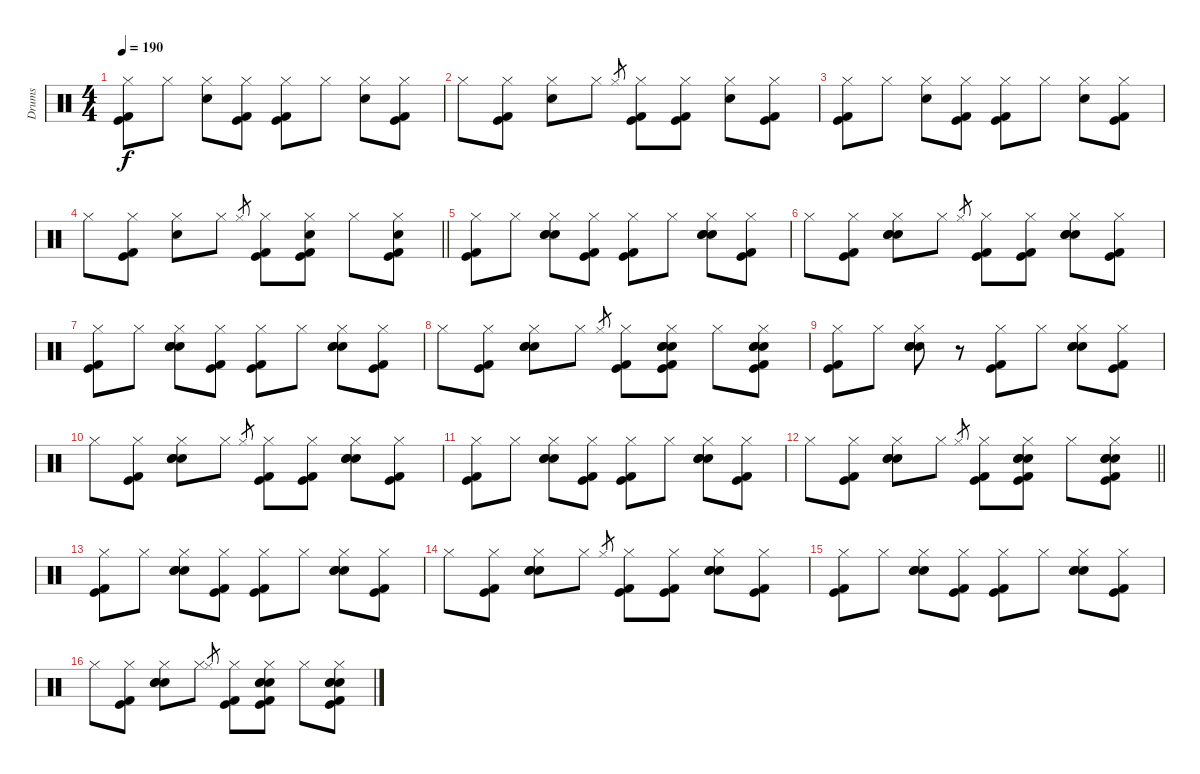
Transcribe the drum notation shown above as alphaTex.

\track ("Drums" "Drums") {instrument percussion}
\staff {score}
\articulation defaults
\ts (4 4)
\tempo 190
\clef neutral
\ks c
("Hi-Hat (closed)" "Kick (hit)" "Kick (hit) 2").8{dy f} "Hi-Hat (closed)".8 ("Hi-Hat (closed)" "Snare (hit) 2").8 ("Hi-Hat (closed)" "Kick (hit)" "Kick (hit) 2").8 ("Hi-Hat (closed)" "Kick (hit)" "Kick (hit) 2").8 "Hi-Hat (closed)".8 ("Hi-Hat (closed)" "Snare (hit) 2").8 ("Hi-Hat (closed)" "Kick (hit)" "Kick (hit) 2").8 |
"Hi-Hat (closed)".8 ("Hi-Hat (closed)" "Kick (hit)" "Kick (hit) 2").8 ("Hi-Hat (closed)" "Snare (hit) 2").8 "Hi-Hat (closed)".8 "Hi-Hat (closed)".8{gr} ("Hi-Hat (closed)" "Kick (hit)" "Kick (hit) 2").8 ("Hi-Hat (closed)" "Kick (hit)" "Kick (hit) 2").8 ("Hi-Hat (closed)" "Snare (hit) 2").8 ("Hi-Hat (closed)" "Kick (hit)" "Kick (hit) 2").8 |
("Hi-Hat (closed)" "Kick (hit)" "Kick (hit) 2").8 "Hi-Hat (closed)".8 ("Hi-Hat (closed)" "Snare (hit) 2").8 ("Hi-Hat (closed)" "Kick (hit)" "Kick (hit) 2").8 ("Hi-Hat (closed)" "Kick (hit)" "Kick (hit) 2").8 "Hi-Hat (closed)".8 ("Hi-Hat (closed)" "Snare (hit) 2").8 ("Hi-Hat (closed)" "Kick (hit)" "Kick (hit) 2").8 |
\barLineRight lightlight "Hi-Hat (closed)".8
("Hi-Hat (closed)" "Kick (hit)" "Kick (hit) 2").8 ("Hi-Hat (closed)" "Snare (hit) 2").8 "Hi-Hat (closed)".8 "Hi-Hat (closed)".8{gr} ("Hi-Hat (closed)" "Kick (hit)" "Kick (hit) 2").8 ("Hi-Hat (closed)" "Kick (hit)" "Snare (hit) 2" "Kick (hit) 2").8 "Hi-Hat (closed)".8 ("Hi-Hat (closed)" "Snare (hit) 2" "Kick (hit)" "Kick (hit) 2").8 |
("Hi-Hat (closed)" "Kick (hit)" "Kick (hit) 2").8 "Hi-Hat (closed)".8 ("Electric Snare (hit)" "Hi-Hat (closed)" "Hand Clap (hit)" "Snare (hit) 2").8 ("Hi-Hat (closed)" "Kick (hit)" "Kick (hit) 2").8 ("Hi-Hat (closed)" "Kick (hit)" "Kick (hit) 2").8 "Hi-Hat (closed)".8 ("Electric Snare (hit)" "Hi-Hat (closed)" "Hand Clap (hit)" "Snare (hit) 2").8 ("Hi-Hat (closed)" "Kick (hit)" "Kick (hit) 2").8 |
"Hi-Hat (closed)".8 ("Hi-Hat (closed)" "Kick (hit)" "Kick (hit) 2").8 ("Electric Snare (hit)" "Hi-Hat (closed)" "Hand Clap (hit)" "Snare (hit) 2").8 "Hi-Hat (closed)".8 "Hi-Hat (closed)".8{gr} ("Hi-Hat (closed)" "Kick (hit)" "Kick (hit) 2").8 ("Hi-Hat (closed)" "Kick (hit)" "Kick (hit) 2").8 ("Electric Snare (hit)" "Hi-Hat (closed)" "Hand Clap (hit)" "Snare (hit) 2").8 ("Hi-Hat (closed)" "Kick (hit)" "Kick (hit) 2").8 |
("Hi-Hat (closed)" "Kick (hit)" "Kick (hit) 2").8 "Hi-Hat (closed)".8 ("Electric Snare (hit)" "Hi-Hat (closed)" "Hand Clap (hit)" "Snare (hit) 2").8 ("Hi-Hat (closed)" "Kick (hit)" "Kick (hit) 2").8 ("Hi-Hat (closed)" "Kick (hit)" "Kick (hit) 2").8 "Hi-Hat (closed)".8 ("Electric Snare (hit)" "Hi-Hat (closed)" "Hand Clap (hit)" "Snare (hit) 2").8 ("Hi-Hat (closed)" "Kick (hit)" "Kick (hit) 2").8 |
"Hi-Hat (closed)".8 ("Hi-Hat (closed)" "Kick (hit)" "Kick (hit) 2").8 ("Electric Snare (hit)" "Hi-Hat (closed)" "Hand Clap (hit)" "Snare (hit) 2").8 "Hi-Hat (closed)".8 "Hi-Hat (closed)".8{gr} ("Hi-Hat (closed)" "Kick (hit)" "Kick (hit) 2").8 ("Hand Clap (hit)" "Electric Snare (hit)" "Hi-Hat (closed)" "Kick (hit)" "Snare (hit) 2" "Kick (hit) 2").8 "Hi-Hat (closed)".8 ("Hand Clap (hit)" "Electric Snare (hit)" "Hi-Hat (closed)" "Snare (hit) 2" "Kick (hit)" "Kick (hit) 2").8 |
("Hi-Hat (closed)" "Kick (hit)" "Kick (hit) 2").8 "Hi-Hat (closed)".8 ("Hand Clap (hit)" "Hi-Hat (closed)" "Electric Snare (hit)" "Snare (hit) 2").8 r.8 ("Hi-Hat (closed)" "Kick (hit)" "Kick (hit) 2").8 "Hi-Hat (closed)".8 ("Hand Clap (hit)" "Hi-Hat (closed)" "Electric Snare (hit)" "Snare (hit) 2").8 ("Hi-Hat (closed)" "Kick (hit)" "Kick (hit) 2").8 |
"Hi-Hat (closed)".8 ("Hi-Hat (closed)" "Kick (hit)" "Kick (hit) 2").8 ("Hand Clap (hit)" "Hi-Hat (closed)" "Electric Snare (hit)" "Snare (hit) 2").8 "Hi-Hat (closed)".8 "Hi-Hat (closed)".8{gr} ("Hi-Hat (closed)" "Kick (hit)" "Kick (hit) 2").8 ("Hi-Hat (closed)" "Kick (hit)" "Kick (hit) 2").8 ("Hand Clap (hit)" "Hi-Hat (closed)" "Electric Snare (hit)" "Snare (hit) 2").8 ("Hi-Hat (closed)" "Kick (hit)" "Kick (hit) 2").8 |
("Hi-Hat (closed)" "Kick (hit)" "Kick (hit) 2").8 "Hi-Hat (closed)".8 ("Hand Clap (hit)" "Hi-Hat (closed)" "Electric Snare (hit)" "Snare (hit) 2").8 ("Hi-Hat (closed)" "Kick (hit)" "Kick (hit) 2").8 ("Hi-Hat (closed)" "Kick (hit)" "Kick (hit) 2").8 "Hi-Hat (closed)".8 ("Hand Clap (hit)" "Hi-Hat (closed)" "Electric Snare (hit)" "Snare (hit) 2").8 ("Hi-Hat (closed)" "Kick (hit)" "Kick (hit) 2").8 |
\barLineRight lightlight "Hi-Hat (closed)".8
("Hi-Hat (closed)" "Kick (hit)" "Kick (hit) 2").8 ("Hand Clap (hit)" "Hi-Hat (closed)" "Electric Snare (hit)" "Snare (hit) 2").8 "Hi-Hat (closed)".8 "Hi-Hat (closed)".8{gr} ("Hi-Hat (closed)" "Kick (hit)" "Kick (hit) 2").8 ("Hand Clap (hit)" "Electric Snare (hit)" "Hi-Hat (closed)" "Kick (hit)" "Snare (hit) 2" "Kick (hit) 2").8 "Hi-Hat (closed)".8 ("Hand Clap (hit)" "Electric Snare (hit)" "Hi-Hat (closed)" "Snare (hit) 2" "Kick (hit)" "Kick (hit) 2").8 |
("Hi-Hat (closed)" "Kick (hit)" "Kick (hit) 2").8 "Hi-Hat (closed)".8 ("Electric Snare (hit)" "Hi-Hat (closed)" "Hand Clap (hit)" "Snare (hit) 2").8 ("Hi-Hat (closed)" "Kick (hit)" "Kick (hit) 2").8 ("Hi-Hat (closed)" "Kick (hit)" "Kick (hit) 2").8 "Hi-Hat (closed)".8 ("Electric Snare (hit)" "Hi-Hat (closed)" "Hand Clap (hit)" "Snare (hit) 2").8 ("Hi-Hat (closed)" "Kick (hit)" "Kick (hit) 2").8 |
"Hi-Hat (closed)".8 ("Hi-Hat (closed)" "Kick (hit)" "Kick (hit) 2").8 ("Electric Snare (hit)" "Hi-Hat (closed)" "Hand Clap (hit)" "Snare (hit) 2").8 "Hi-Hat (closed)".8 "Hi-Hat (closed)".8{gr} ("Hi-Hat (closed)" "Kick (hit)" "Kick (hit) 2").8 ("Hi-Hat (closed)" "Kick (hit)" "Kick (hit) 2").8 ("Electric Snare (hit)" "Hi-Hat (closed)" "Hand Clap (hit)" "Snare (hit) 2").8 ("Hi-Hat (closed)" "Kick (hit)" "Kick (hit) 2").8 |
("Hi-Hat (closed)" "Kick (hit)" "Kick (hit) 2").8 "Hi-Hat (closed)".8 ("Electric Snare (hit)" "Hi-Hat (closed)" "Hand Clap (hit)" "Snare (hit) 2").8 ("Hi-Hat (closed)" "Kick (hit)" "Kick (hit) 2").8 ("Hi-Hat (closed)" "Kick (hit)" "Kick (hit) 2").8 "Hi-Hat (closed)".8 ("Electric Snare (hit)" "Hi-Hat (closed)" "Hand Clap (hit)" "Snare (hit) 2").8 ("Hi-Hat (closed)" "Kick (hit)" "Kick (hit) 2").8 |
"Hi-Hat (closed)".8 ("Hi-Hat (closed)" "Kick (hit)" "Kick (hit) 2").8 ("Electric Snare (hit)" "Hi-Hat (closed)" "Hand Clap (hit)" "Snare (hit) 2").8 "Hi-Hat (closed)".8 "Hi-Hat (closed)".8{gr} ("Hi-Hat (closed)" "Kick (hit)" "Kick (hit) 2").8 ("Hand Clap (hit)" "Electric Snare (hit)" "Hi-Hat (closed)" "Kick (hit)" "Snare (hit) 2" "Kick (hit) 2").8 "Hi-Hat (closed)".8 ("Hand Clap (hit)" "Electric Snare (hit)" "Hi-Hat (closed)" "Snare (hit) 2" "Kick (hit)" "Kick (hit) 2").8
